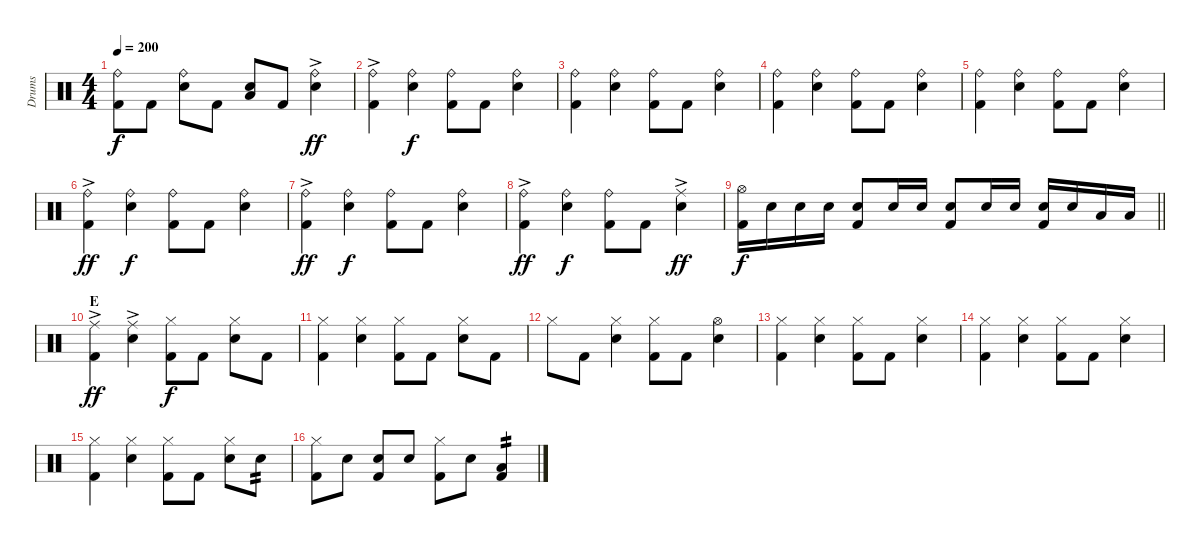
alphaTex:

\track ("Drums" "Drums") {instrument percussion}
\staff {score}
\articulation defaults
\ts (4 4)
\tempo 200
\clef neutral
\ks c
("Ride (bell)" "Kick (hit) 2").8{dy f} "Kick (hit) 2".8 ("Ride (bell)" "Snare (hit) 2").8 "Kick (hit) 2".8 ("Snare (hit) 2" "Low Tom (hit)").8 "Kick (hit) 2".8 ("Ride (bell)"{ac} "Snare (hit) 2").4{dy ff} |
("Ride (bell)"{ac} "Kick (hit) 2").4 ("Ride (bell)" "Snare (hit) 2").4{dy f} ("Ride (bell)" "Kick (hit) 2").8 "Kick (hit) 2".8 ("Ride (bell)" "Snare (hit) 2").4 |
("Ride (bell)" "Kick (hit) 2").4 ("Ride (bell)" "Snare (hit) 2").4 ("Ride (bell)" "Kick (hit) 2").8 "Kick (hit) 2".8 ("Ride (bell)" "Snare (hit) 2").4 |
("Ride (bell)" "Kick (hit) 2").4 ("Ride (bell)" "Snare (hit) 2").4 ("Ride (bell)" "Kick (hit) 2").8 "Kick (hit) 2".8 ("Ride (bell)" "Snare (hit) 2").4 |
("Ride (bell)" "Kick (hit) 2").4 ("Ride (bell)" "Snare (hit) 2").4 ("Ride (bell)" "Kick (hit) 2").8 "Kick (hit) 2".8 ("Ride (bell)" "Snare (hit) 2").4 |
("Ride (bell)"{ac} "Kick (hit) 2").4{dy ff} ("Ride (bell)" "Snare (hit) 2").4{dy f} ("Ride (bell)" "Kick (hit) 2").8 "Kick (hit) 2".8 ("Ride (bell)" "Snare (hit) 2").4 |
("Ride (bell)"{ac} "Kick (hit) 2").4{dy ff} ("Ride (bell)" "Snare (hit) 2").4{dy f} ("Ride (bell)" "Kick (hit) 2").8 "Kick (hit) 2".8 ("Ride (bell)" "Snare (hit) 2").4 |
("Ride (bell)"{ac} "Kick (hit) 2").4{dy ff} ("Ride (bell)" "Snare (hit) 2").4{dy f} ("Ride (bell)" "Kick (hit) 2").8 "Kick (hit) 2".8 ("Ride (middle)"{ac} "Snare (hit) 2").4{dy ff} |
\barLineRight lightlight
("Hi-Hat (open)" "Kick (hit) 2").16{dy f} "Snare (hit) 2".16 "Snare (hit) 2".16 "Snare (hit) 2".16 ("Snare (hit) 2" "Kick (hit) 2").8 "Snare (hit) 2".16 "Snare (hit) 2".16 ("Snare (hit) 2" "Kick (hit) 2").8 "Snare (hit) 2".16 "Snare (hit) 2".16 ("Snare (hit) 2" "Kick (hit) 2").16 "Snare (hit) 2".16 "Low Tom (hit)".16 "Low Tom (hit)".16 |
\section ("" "E")
("Ride (middle)"{ac} "Kick (hit) 2").4{dy ff} ("Ride (middle)"{ac} "Snare (hit) 2").4 ("Hi-Hat (closed)" "Kick (hit) 2").8{dy f} "Kick (hit) 2".8 ("Hi-Hat (closed)" "Snare (hit) 2").8 "Kick (hit) 2".8 |
("Hi-Hat (closed)" "Kick (hit) 2").4 ("Hi-Hat (closed)" "Snare (hit) 2").4 ("Hi-Hat (closed)" "Kick (hit) 2").8 "Kick (hit) 2".8 ("Hi-Hat (closed)" "Snare (hit) 2").8 "Kick (hit) 2".8 |
"Hi-Hat (closed)".8 "Kick (hit) 2".8 ("Hi-Hat (closed)" "Snare (hit) 2").4 ("Hi-Hat (closed)" "Kick (hit) 2").8 "Kick (hit) 2".8 ("Hi-Hat (open)" "Snare (hit) 2").4 |
("Hi-Hat (closed)" "Kick (hit) 2").4 ("Hi-Hat (closed)" "Snare (hit) 2").4 ("Hi-Hat (closed)" "Kick (hit) 2").8 "Kick (hit) 2".8 ("Hi-Hat (closed)" "Snare (hit) 2").4 |
("Hi-Hat (closed)" "Kick (hit) 2").4 ("Hi-Hat (closed)" "Snare (hit) 2").4 ("Hi-Hat (closed)" "Kick (hit) 2").8 "Kick (hit) 2".8 ("Hi-Hat (closed)" "Snare (hit) 2").4 |
("Hi-Hat (closed)" "Kick (hit) 2").4 ("Hi-Hat (closed)" "Snare (hit) 2").4 ("Hi-Hat (closed)" "Kick (hit) 2").8 "Kick (hit) 2".8 ("Hi-Hat (closed)" "Snare (hit) 2").8 "Snare (hit) 2".8{tp 2} |
("Hi-Hat (closed)" "Kick (hit) 2").8 "Snare (hit) 2".8 ("Snare (hit) 2" "Kick (hit) 2").8 "Snare (hit) 2".8 ("Hi-Hat (closed)" "Kick (hit) 2").8 "Snare (hit) 2".8 ("Low Tom (hit)" "Kick (hit) 2").4{tp 2}
